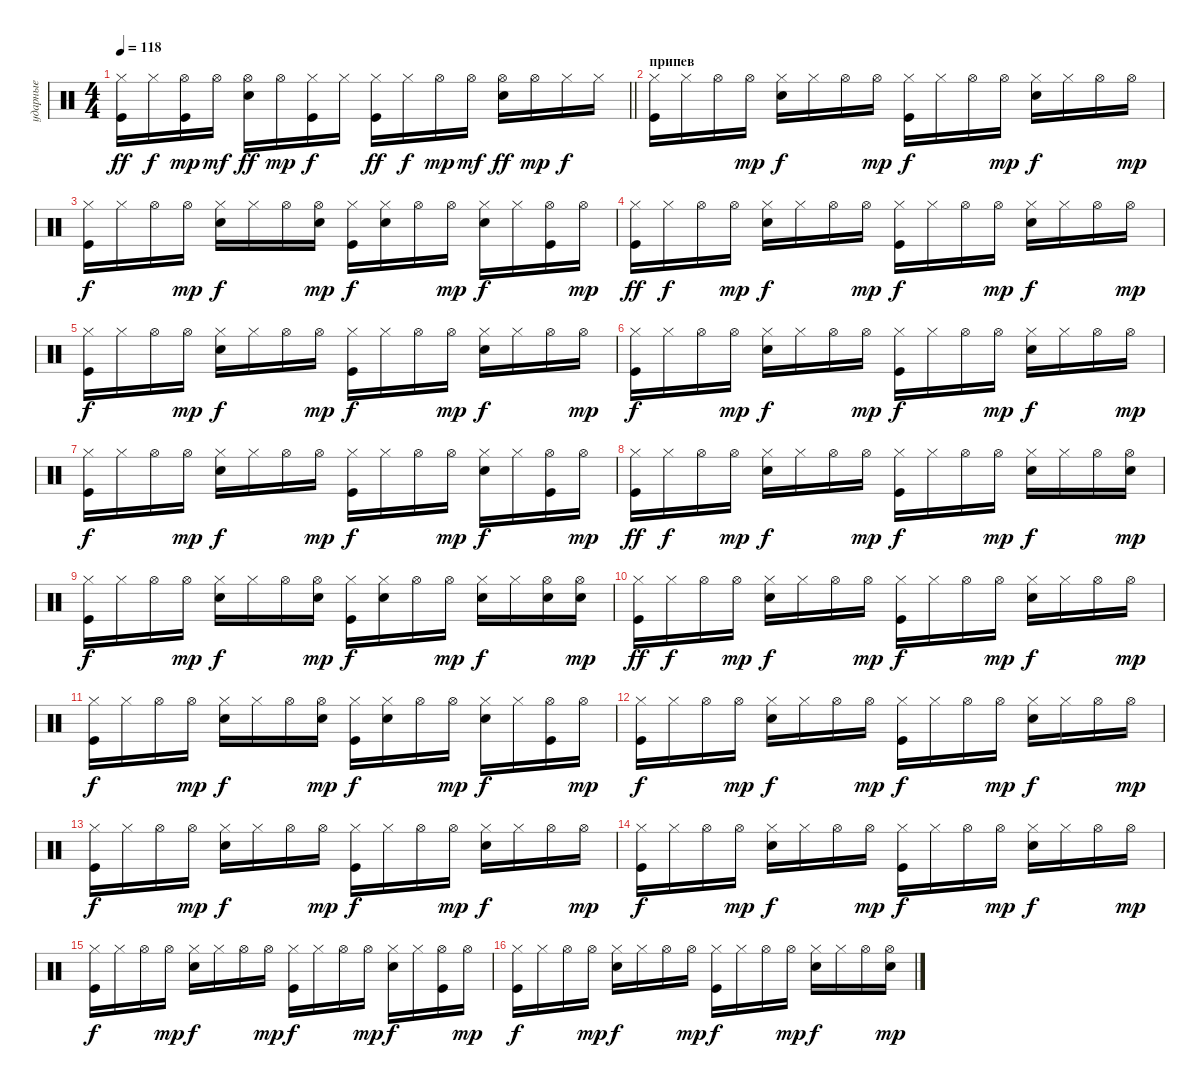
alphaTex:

\track ("ударные" "ударные") {instrument percussion}
\staff {score}
\articulation defaults
\ts (4 4)
\tempo 118
\clef neutral
\barLineRight lightlight
\ks c
("Kick (hit)" "Hi-Hat (closed)").16{dy ff} "Hi-Hat (closed)".16{dy f} ("Kick (hit)" "Hi-Hat (open)").16{dy mp} "Hi-Hat (open)".16{dy mf} ("Electric Snare (hit)" "Hi-Hat (open)").16{dy ff} "Hi-Hat (open)".16{dy mp} ("Kick (hit)" "Hi-Hat (closed)").16{dy f} "Hi-Hat (closed)".16 ("Kick (hit)" "Hi-Hat (closed)").16{dy ff} "Hi-Hat (closed)".16{dy f} "Hi-Hat (open)".16{dy mp} "Hi-Hat (open)".16{dy mf} ("Electric Snare (hit)" "Hi-Hat (open)").16{dy ff} "Hi-Hat (open)".16{dy mp} "Hi-Hat (closed)".16{dy f} "Hi-Hat (closed)".16 |
\section ("" "припев")
("Hi-Hat (closed)" "Kick (hit)").16 "Hi-Hat (closed)".16 "Hi-Hat (open)".16 "Hi-Hat (open)".16{dy mp} ("Hi-Hat (closed)" "Electric Snare (hit)").16{dy f} "Hi-Hat (closed)".16 "Hi-Hat (open)".16 "Hi-Hat (open)".16{dy mp} ("Kick (hit)" "Hi-Hat (closed)").16{dy f} "Hi-Hat (closed)".16 "Hi-Hat (open)".16 "Hi-Hat (open)".16{dy mp} ("Hi-Hat (closed)" "Electric Snare (hit)").16{dy f} "Hi-Hat (closed)".16 "Hi-Hat (open)".16 "Hi-Hat (open)".16{dy mp} |
("Hi-Hat (closed)" "Kick (hit)").16{dy f} "Hi-Hat (closed)".16 "Hi-Hat (open)".16 "Hi-Hat (open)".16{dy mp} ("Hi-Hat (closed)" "Electric Snare (hit)").16{dy f} "Hi-Hat (closed)".16 "Hi-Hat (open)".16 ("Electric Snare (hit)" "Hi-Hat (open)").16{dy mp} ("Kick (hit)" "Hi-Hat (closed)").16{dy f} ("Electric Snare (hit)" "Hi-Hat (closed)").16 "Hi-Hat (open)".16 "Hi-Hat (open)".16{dy mp} ("Hi-Hat (closed)" "Electric Snare (hit)").16{dy f} "Hi-Hat (closed)".16 ("Kick (hit)" "Hi-Hat (open)").16 "Hi-Hat (open)".16{dy mp} |
("Hi-Hat (closed)" "Kick (hit)").16{dy ff} "Hi-Hat (closed)".16{dy f} "Hi-Hat (open)".16 "Hi-Hat (open)".16{dy mp} ("Hi-Hat (closed)" "Electric Snare (hit)").16{dy f} "Hi-Hat (closed)".16 "Hi-Hat (open)".16 "Hi-Hat (open)".16{dy mp} ("Kick (hit)" "Hi-Hat (closed)").16{dy f} "Hi-Hat (closed)".16 "Hi-Hat (open)".16 "Hi-Hat (open)".16{dy mp} ("Hi-Hat (closed)" "Electric Snare (hit)").16{dy f} "Hi-Hat (closed)".16 "Hi-Hat (open)".16 "Hi-Hat (open)".16{dy mp} |
("Hi-Hat (closed)" "Kick (hit)").16{dy f} "Hi-Hat (closed)".16 "Hi-Hat (open)".16 "Hi-Hat (open)".16{dy mp} ("Hi-Hat (closed)" "Electric Snare (hit)").16{dy f} "Hi-Hat (closed)".16 "Hi-Hat (open)".16 "Hi-Hat (open)".16{dy mp} ("Kick (hit)" "Hi-Hat (closed)").16{dy f} "Hi-Hat (closed)".16 "Hi-Hat (open)".16 "Hi-Hat (open)".16{dy mp} ("Hi-Hat (closed)" "Electric Snare (hit)").16{dy f} "Hi-Hat (closed)".16 "Hi-Hat (open)".16 "Hi-Hat (open)".16{dy mp} |
("Hi-Hat (closed)" "Kick (hit)").16{dy f} "Hi-Hat (closed)".16 "Hi-Hat (open)".16 "Hi-Hat (open)".16{dy mp} ("Hi-Hat (closed)" "Electric Snare (hit)").16{dy f} "Hi-Hat (closed)".16 "Hi-Hat (open)".16 "Hi-Hat (open)".16{dy mp} ("Kick (hit)" "Hi-Hat (closed)").16{dy f} "Hi-Hat (closed)".16 "Hi-Hat (open)".16 "Hi-Hat (open)".16{dy mp} ("Hi-Hat (closed)" "Electric Snare (hit)").16{dy f} "Hi-Hat (closed)".16 "Hi-Hat (open)".16 "Hi-Hat (open)".16{dy mp} |
("Hi-Hat (closed)" "Kick (hit)").16{dy f} "Hi-Hat (closed)".16 "Hi-Hat (open)".16 "Hi-Hat (open)".16{dy mp} ("Electric Snare (hit)" "Hi-Hat (closed)").16{dy f} "Hi-Hat (closed)".16 "Hi-Hat (open)".16 "Hi-Hat (open)".16{dy mp} ("Kick (hit)" "Hi-Hat (closed)").16{dy f} "Hi-Hat (closed)".16 "Hi-Hat (open)".16 "Hi-Hat (open)".16{dy mp} ("Hi-Hat (closed)" "Electric Snare (hit)").16{dy f} "Hi-Hat (closed)".16 ("Kick (hit)" "Hi-Hat (open)").16 "Hi-Hat (open)".16{dy mp} |
("Hi-Hat (closed)" "Kick (hit)").16{dy ff} "Hi-Hat (closed)".16{dy f} "Hi-Hat (open)".16 "Hi-Hat (open)".16{dy mp} ("Hi-Hat (closed)" "Electric Snare (hit)").16{dy f} "Hi-Hat (closed)".16 "Hi-Hat (open)".16 "Hi-Hat (open)".16{dy mp} ("Kick (hit)" "Hi-Hat (closed)").16{dy f} "Hi-Hat (closed)".16 "Hi-Hat (open)".16 "Hi-Hat (open)".16{dy mp} ("Hi-Hat (closed)" "Electric Snare (hit)").16{dy f} "Hi-Hat (closed)".16 "Hi-Hat (open)".16 ("Electric Snare (hit)" "Hi-Hat (open)").16{dy mp} |
("Hi-Hat (closed)" "Kick (hit)").16{dy f} "Hi-Hat (closed)".16 "Hi-Hat (open)".16 "Hi-Hat (open)".16{dy mp} ("Hi-Hat (closed)" "Electric Snare (hit)").16{dy f} "Hi-Hat (closed)".16 "Hi-Hat (open)".16 ("Electric Snare (hit)" "Hi-Hat (open)").16{dy mp} ("Kick (hit)" "Hi-Hat (closed)").16{dy f} ("Electric Snare (hit)" "Hi-Hat (closed)").16 "Hi-Hat (open)".16 "Hi-Hat (open)".16{dy mp} ("Hi-Hat (closed)" "Electric Snare (hit)").16{dy f} "Hi-Hat (closed)".16 ("Electric Snare (hit)" "Hi-Hat (open)").16 ("Electric Snare (hit)" "Hi-Hat (open)").16{dy mp} |
("Hi-Hat (closed)" "Kick (hit)").16{dy ff} "Hi-Hat (closed)".16{dy f} "Hi-Hat (open)".16 "Hi-Hat (open)".16{dy mp} ("Hi-Hat (closed)" "Electric Snare (hit)").16{dy f} "Hi-Hat (closed)".16 "Hi-Hat (open)".16 "Hi-Hat (open)".16{dy mp} ("Kick (hit)" "Hi-Hat (closed)").16{dy f} "Hi-Hat (closed)".16 "Hi-Hat (open)".16 "Hi-Hat (open)".16{dy mp} ("Hi-Hat (closed)" "Electric Snare (hit)").16{dy f} "Hi-Hat (closed)".16 "Hi-Hat (open)".16 "Hi-Hat (open)".16{dy mp} |
("Hi-Hat (closed)" "Kick (hit)").16{dy f} "Hi-Hat (closed)".16 "Hi-Hat (open)".16 "Hi-Hat (open)".16{dy mp} ("Hi-Hat (closed)" "Electric Snare (hit)").16{dy f} "Hi-Hat (closed)".16 "Hi-Hat (open)".16 ("Electric Snare (hit)" "Hi-Hat (open)").16{dy mp} ("Kick (hit)" "Hi-Hat (closed)").16{dy f} ("Electric Snare (hit)" "Hi-Hat (closed)").16 "Hi-Hat (open)".16 "Hi-Hat (open)".16{dy mp} ("Hi-Hat (closed)" "Electric Snare (hit)").16{dy f} "Hi-Hat (closed)".16 ("Kick (hit)" "Hi-Hat (open)").16 "Hi-Hat (open)".16{dy mp} |
("Hi-Hat (closed)" "Kick (hit)").16{dy f} "Hi-Hat (closed)".16 "Hi-Hat (open)".16 "Hi-Hat (open)".16{dy mp} ("Hi-Hat (closed)" "Electric Snare (hit)").16{dy f} "Hi-Hat (closed)".16 "Hi-Hat (open)".16 "Hi-Hat (open)".16{dy mp} ("Kick (hit)" "Hi-Hat (closed)").16{dy f} "Hi-Hat (closed)".16 "Hi-Hat (open)".16 "Hi-Hat (open)".16{dy mp} ("Hi-Hat (closed)" "Electric Snare (hit)").16{dy f} "Hi-Hat (closed)".16 "Hi-Hat (open)".16 "Hi-Hat (open)".16{dy mp} |
("Hi-Hat (closed)" "Kick (hit)").16{dy f} "Hi-Hat (closed)".16 "Hi-Hat (open)".16 "Hi-Hat (open)".16{dy mp} ("Hi-Hat (closed)" "Electric Snare (hit)").16{dy f} "Hi-Hat (closed)".16 "Hi-Hat (open)".16 "Hi-Hat (open)".16{dy mp} ("Kick (hit)" "Hi-Hat (closed)").16{dy f} "Hi-Hat (closed)".16 "Hi-Hat (open)".16 "Hi-Hat (open)".16{dy mp} ("Hi-Hat (closed)" "Electric Snare (hit)").16{dy f} "Hi-Hat (closed)".16 "Hi-Hat (open)".16 "Hi-Hat (open)".16{dy mp} |
("Hi-Hat (closed)" "Kick (hit)").16{dy f} "Hi-Hat (closed)".16 "Hi-Hat (open)".16 "Hi-Hat (open)".16{dy mp} ("Hi-Hat (closed)" "Electric Snare (hit)").16{dy f} "Hi-Hat (closed)".16 "Hi-Hat (open)".16 "Hi-Hat (open)".16{dy mp} ("Kick (hit)" "Hi-Hat (closed)").16{dy f} "Hi-Hat (closed)".16 "Hi-Hat (open)".16 "Hi-Hat (open)".16{dy mp} ("Hi-Hat (closed)" "Electric Snare (hit)").16{dy f} "Hi-Hat (closed)".16 "Hi-Hat (open)".16 "Hi-Hat (open)".16{dy mp} |
("Hi-Hat (closed)" "Kick (hit)").16{dy f} "Hi-Hat (closed)".16 "Hi-Hat (open)".16 "Hi-Hat (open)".16{dy mp} ("Electric Snare (hit)" "Hi-Hat (closed)").16{dy f} "Hi-Hat (closed)".16 "Hi-Hat (open)".16 "Hi-Hat (open)".16{dy mp} ("Kick (hit)" "Hi-Hat (closed)").16{dy f} "Hi-Hat (closed)".16 "Hi-Hat (open)".16 "Hi-Hat (open)".16{dy mp} ("Hi-Hat (closed)" "Electric Snare (hit)").16{dy f} "Hi-Hat (closed)".16 ("Kick (hit)" "Hi-Hat (open)").16 "Hi-Hat (open)".16{dy mp} |
("Hi-Hat (closed)" "Kick (hit)").16{dy f} "Hi-Hat (closed)".16 "Hi-Hat (open)".16 "Hi-Hat (open)".16{dy mp} ("Hi-Hat (closed)" "Electric Snare (hit)").16{dy f} "Hi-Hat (closed)".16 "Hi-Hat (open)".16 "Hi-Hat (open)".16{dy mp} ("Kick (hit)" "Hi-Hat (closed)").16{dy f} "Hi-Hat (closed)".16 "Hi-Hat (open)".16 "Hi-Hat (open)".16{dy mp} ("Hi-Hat (closed)" "Electric Snare (hit)").16{dy f} "Hi-Hat (closed)".16 "Hi-Hat (open)".16 ("Electric Snare (hit)" "Hi-Hat (open)").16{dy mp}
